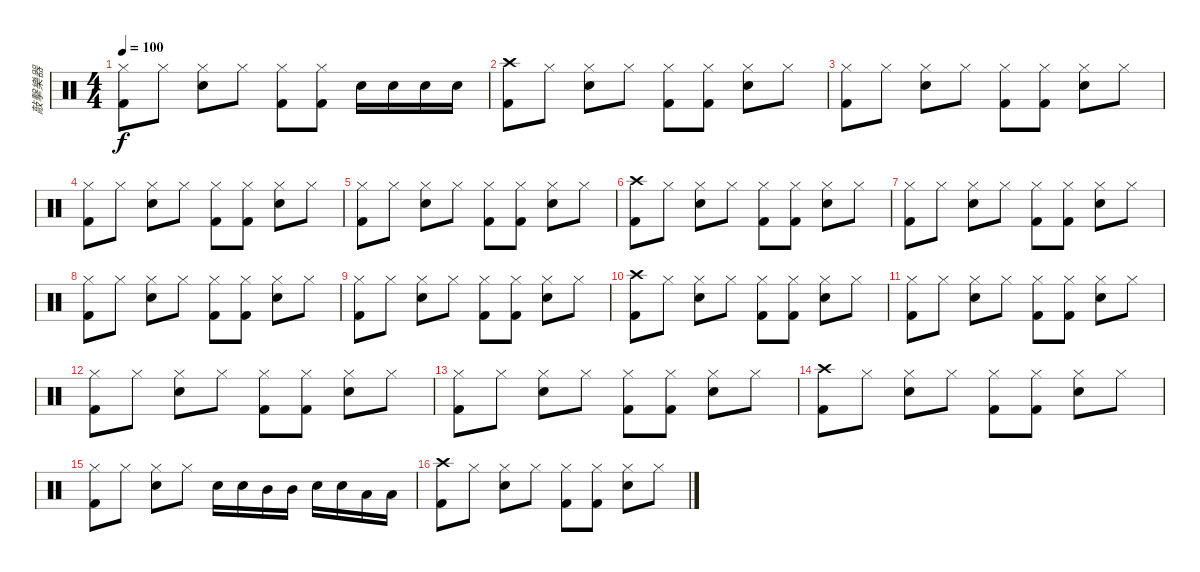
\track ("敲擊樂器" "敲擊樂器") {instrument percussion}
\staff {score}
\articulation defaults
\ts (4 4)
\tempo 100
\clef neutral
\ks c
("Hi-Hat (closed)" "Kick (hit) 2").8{dy f} "Hi-Hat (closed)".8 ("Hi-Hat (closed)" "Snare (hit) 2").8 "Hi-Hat (closed)".8 ("Hi-Hat (closed)" "Kick (hit) 2").8 ("Hi-Hat (closed)" "Kick (hit) 2").8 "Snare (hit) 2".16 "Snare (hit) 2".16 "Snare (hit) 2".16 "Snare (hit) 2".16 |
("Crash high (hit)" "Kick (hit) 2").8 "Hi-Hat (closed)".8 ("Hi-Hat (closed)" "Snare (hit) 2").8 "Hi-Hat (closed)".8 ("Hi-Hat (closed)" "Kick (hit) 2").8 ("Hi-Hat (closed)" "Kick (hit) 2").8 ("Hi-Hat (closed)" "Snare (hit) 2").8 "Hi-Hat (closed)".8 |
("Hi-Hat (closed)" "Kick (hit) 2").8 "Hi-Hat (closed)".8 ("Hi-Hat (closed)" "Snare (hit) 2").8 "Hi-Hat (closed)".8 ("Hi-Hat (closed)" "Kick (hit) 2").8 ("Hi-Hat (closed)" "Kick (hit) 2").8 ("Hi-Hat (closed)" "Snare (hit) 2").8 "Hi-Hat (closed)".8 |
("Hi-Hat (closed)" "Kick (hit) 2").8 "Hi-Hat (closed)".8 ("Hi-Hat (closed)" "Snare (hit) 2").8 "Hi-Hat (closed)".8 ("Hi-Hat (closed)" "Kick (hit) 2").8 ("Hi-Hat (closed)" "Kick (hit) 2").8 ("Hi-Hat (closed)" "Snare (hit) 2").8 "Hi-Hat (closed)".8 |
("Hi-Hat (closed)" "Kick (hit) 2").8 "Hi-Hat (closed)".8 ("Hi-Hat (closed)" "Snare (hit) 2").8 "Hi-Hat (closed)".8 ("Hi-Hat (closed)" "Kick (hit) 2").8 ("Hi-Hat (closed)" "Kick (hit) 2").8 ("Hi-Hat (closed)" "Snare (hit) 2").8 "Hi-Hat (closed)".8 |
("Crash high (hit)" "Kick (hit) 2").8 "Hi-Hat (closed)".8 ("Hi-Hat (closed)" "Snare (hit) 2").8 "Hi-Hat (closed)".8 ("Hi-Hat (closed)" "Kick (hit) 2").8 ("Hi-Hat (closed)" "Kick (hit) 2").8 ("Hi-Hat (closed)" "Snare (hit) 2").8 "Hi-Hat (closed)".8 |
("Hi-Hat (closed)" "Kick (hit) 2").8 "Hi-Hat (closed)".8 ("Hi-Hat (closed)" "Snare (hit) 2").8 "Hi-Hat (closed)".8 ("Hi-Hat (closed)" "Kick (hit) 2").8 ("Hi-Hat (closed)" "Kick (hit) 2").8 ("Hi-Hat (closed)" "Snare (hit) 2").8 "Hi-Hat (closed)".8 |
("Hi-Hat (closed)" "Kick (hit) 2").8 "Hi-Hat (closed)".8 ("Hi-Hat (closed)" "Snare (hit) 2").8 "Hi-Hat (closed)".8 ("Hi-Hat (closed)" "Kick (hit) 2").8 ("Hi-Hat (closed)" "Kick (hit) 2").8 ("Hi-Hat (closed)" "Snare (hit) 2").8 "Hi-Hat (closed)".8 |
("Hi-Hat (closed)" "Kick (hit) 2").8 "Hi-Hat (closed)".8 ("Hi-Hat (closed)" "Snare (hit) 2").8 "Hi-Hat (closed)".8 ("Hi-Hat (closed)" "Kick (hit) 2").8 ("Hi-Hat (closed)" "Kick (hit) 2").8 ("Hi-Hat (closed)" "Snare (hit) 2").8 "Hi-Hat (closed)".8 |
("Crash high (hit)" "Kick (hit) 2").8 "Hi-Hat (closed)".8 ("Hi-Hat (closed)" "Snare (hit) 2").8 "Hi-Hat (closed)".8 ("Hi-Hat (closed)" "Kick (hit) 2").8 ("Hi-Hat (closed)" "Kick (hit) 2").8 ("Hi-Hat (closed)" "Snare (hit) 2").8 "Hi-Hat (closed)".8 |
("Hi-Hat (closed)" "Kick (hit) 2").8 "Hi-Hat (closed)".8 ("Hi-Hat (closed)" "Snare (hit) 2").8 "Hi-Hat (closed)".8 ("Hi-Hat (closed)" "Kick (hit) 2").8 ("Hi-Hat (closed)" "Kick (hit) 2").8 ("Hi-Hat (closed)" "Snare (hit) 2").8 "Hi-Hat (closed)".8 |
("Hi-Hat (closed)" "Kick (hit) 2").8 "Hi-Hat (closed)".8 ("Hi-Hat (closed)" "Snare (hit) 2").8 "Hi-Hat (closed)".8 ("Hi-Hat (closed)" "Kick (hit) 2").8 ("Hi-Hat (closed)" "Kick (hit) 2").8 ("Hi-Hat (closed)" "Snare (hit) 2").8 "Hi-Hat (closed)".8 |
("Hi-Hat (closed)" "Kick (hit) 2").8 "Hi-Hat (closed)".8 ("Hi-Hat (closed)" "Snare (hit) 2").8 "Hi-Hat (closed)".8 ("Hi-Hat (closed)" "Kick (hit) 2").8 ("Hi-Hat (closed)" "Kick (hit) 2").8 ("Hi-Hat (closed)" "Snare (hit) 2").8 "Hi-Hat (closed)".8 |
("Crash high (hit)" "Kick (hit) 2").8 "Hi-Hat (closed)".8 ("Hi-Hat (closed)" "Snare (hit) 2").8 "Hi-Hat (closed)".8 ("Hi-Hat (closed)" "Kick (hit) 2").8 ("Hi-Hat (closed)" "Kick (hit) 2").8 ("Hi-Hat (closed)" "Snare (hit) 2").8 "Hi-Hat (closed)".8 |
("Hi-Hat (closed)" "Kick (hit) 2").8 "Hi-Hat (closed)".8 ("Hi-Hat (closed)" "Snare (hit) 2").8 "Hi-Hat (closed)".8 "Snare (hit) 2".16 "Snare (hit) 2".16 "Mid Tom (hit)".16 "Mid Tom (hit)".16 "Snare (hit) 2".16 "Snare (hit) 2".16 "Low Tom (hit)".16 "Low Tom (hit)".16 |
("Crash high (hit)" "Kick (hit) 2").8 "Hi-Hat (closed)".8 ("Hi-Hat (closed)" "Snare (hit) 2").8 "Hi-Hat (closed)".8 ("Hi-Hat (closed)" "Kick (hit) 2").8 ("Hi-Hat (closed)" "Kick (hit) 2").8 ("Hi-Hat (closed)" "Snare (hit) 2").8 "Hi-Hat (closed)".8
